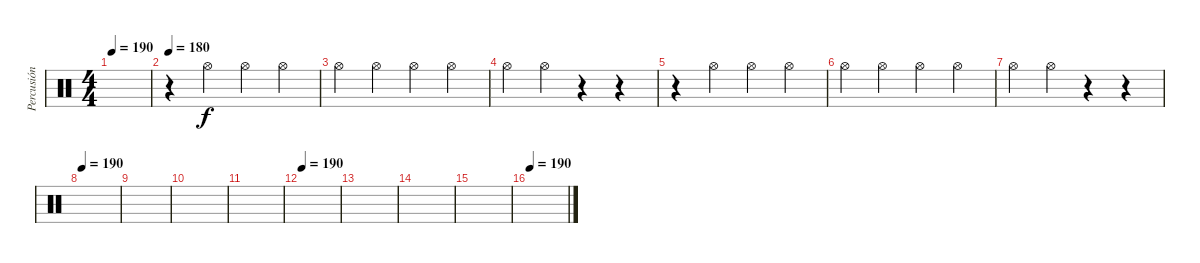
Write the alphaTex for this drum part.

\track ("Percusión" "Percusión") {instrument percussion}
\staff {score}
\articulation defaults
\ts (4 4)
\tempo 190
\clef neutral
\ks c
|
\tempo 180
r.4 "Hi-Hat (open)".4 "Hi-Hat (open)".4 "Hi-Hat (open)".4 |
"Hi-Hat (open)".4 "Hi-Hat (open)".4 "Hi-Hat (open)".4 "Hi-Hat (open)".4 |
"Hi-Hat (open)".4 "Hi-Hat (open)".4 r.4 r.4 |
r.4 "Hi-Hat (open)".4 "Hi-Hat (open)".4 "Hi-Hat (open)".4 |
"Hi-Hat (open)".4 "Hi-Hat (open)".4 "Hi-Hat (open)".4 "Hi-Hat (open)".4 |
"Hi-Hat (open)".4 "Hi-Hat (open)".4 r.4 r.4 |
\tempo 190
|
|
|
|
\tempo 190
|
|
|
|
\tempo 190
